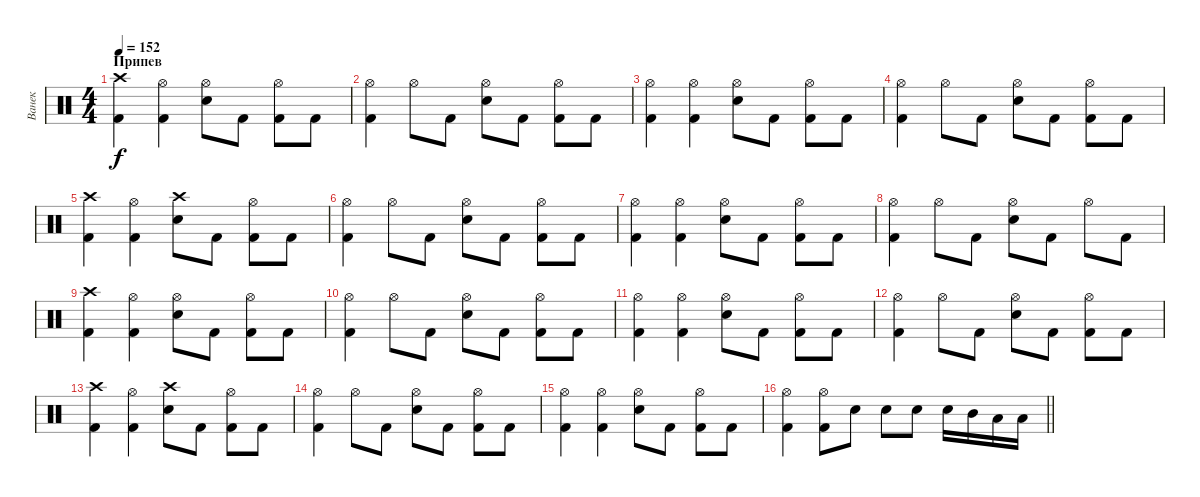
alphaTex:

\track ("Ванек" "Ванек") {instrument percussion}
\staff {score}
\articulation defaults
\ts (4 4)
\section ("" "Припев")
\tempo 152
\clef neutral
\ks c
("Crash high (hit)" "Kick (hit) 2").4{dy f} ("Hi-Hat (open)" "Kick (hit) 2").4 ("Hi-Hat (open)" "Electric Snare (hit)").8 "Kick (hit) 2".8 ("Hi-Hat (open)" "Kick (hit) 2").8 "Kick (hit) 2".8 |
("Hi-Hat (open)" "Kick (hit) 2").4 "Hi-Hat (open)".8 "Kick (hit) 2".8 ("Hi-Hat (open)" "Electric Snare (hit)").8 "Kick (hit) 2".8 ("Hi-Hat (open)" "Kick (hit) 2").8 "Kick (hit) 2".8 |
("Hi-Hat (open)" "Kick (hit) 2").4 ("Hi-Hat (open)" "Kick (hit) 2").4 ("Hi-Hat (open)" "Electric Snare (hit)").8 "Kick (hit) 2".8 ("Hi-Hat (open)" "Kick (hit) 2").8 "Kick (hit) 2".8 |
("Hi-Hat (open)" "Kick (hit) 2").4 "Hi-Hat (open)".8 "Kick (hit) 2".8 ("Hi-Hat (open)" "Electric Snare (hit)").8 "Kick (hit) 2".8 ("Hi-Hat (open)" "Kick (hit) 2").8 "Kick (hit) 2".8 |
("Crash high (hit)" "Kick (hit) 2").4 ("Hi-Hat (open)" "Kick (hit) 2").4 ("Crash high (hit)" "Electric Snare (hit)").8 "Kick (hit) 2".8 ("Hi-Hat (open)" "Kick (hit) 2").8 "Kick (hit) 2".8 |
("Hi-Hat (open)" "Kick (hit) 2").4 "Hi-Hat (open)".8 "Kick (hit) 2".8 ("Hi-Hat (open)" "Electric Snare (hit)").8 "Kick (hit) 2".8 ("Hi-Hat (open)" "Kick (hit) 2").8 "Kick (hit) 2".8 |
("Hi-Hat (open)" "Kick (hit) 2").4 ("Hi-Hat (open)" "Kick (hit) 2").4 ("Hi-Hat (open)" "Electric Snare (hit)").8 "Kick (hit) 2".8 ("Hi-Hat (open)" "Kick (hit) 2").8 "Kick (hit) 2".8 |
("Hi-Hat (open)" "Kick (hit) 2").4 "Hi-Hat (open)".8 "Kick (hit) 2".8 ("Hi-Hat (open)" "Electric Snare (hit)").8 "Kick (hit) 2".8 "Hi-Hat (open)".8 "Kick (hit) 2".8 |
("Crash high (hit)" "Kick (hit) 2").4 ("Hi-Hat (open)" "Kick (hit) 2").4 ("Hi-Hat (open)" "Electric Snare (hit)").8 "Kick (hit) 2".8 ("Hi-Hat (open)" "Kick (hit) 2").8 "Kick (hit) 2".8 |
("Hi-Hat (open)" "Kick (hit) 2").4 "Hi-Hat (open)".8 "Kick (hit) 2".8 ("Hi-Hat (open)" "Electric Snare (hit)").8 "Kick (hit) 2".8 ("Hi-Hat (open)" "Kick (hit) 2").8 "Kick (hit) 2".8 |
("Hi-Hat (open)" "Kick (hit) 2").4 ("Hi-Hat (open)" "Kick (hit) 2").4 ("Hi-Hat (open)" "Electric Snare (hit)").8 "Kick (hit) 2".8 ("Hi-Hat (open)" "Kick (hit) 2").8 "Kick (hit) 2".8 |
("Hi-Hat (open)" "Kick (hit) 2").4 "Hi-Hat (open)".8 "Kick (hit) 2".8 ("Hi-Hat (open)" "Electric Snare (hit)").8 "Kick (hit) 2".8 ("Hi-Hat (open)" "Kick (hit) 2").8 "Kick (hit) 2".8 |
("Crash high (hit)" "Kick (hit) 2").4 ("Hi-Hat (open)" "Kick (hit) 2").4 ("Crash high (hit)" "Electric Snare (hit)").8 "Kick (hit) 2".8 ("Hi-Hat (open)" "Kick (hit) 2").8 "Kick (hit) 2".8 |
("Hi-Hat (open)" "Kick (hit) 2").4 "Hi-Hat (open)".8 "Kick (hit) 2".8 ("Hi-Hat (open)" "Electric Snare (hit)").8 "Kick (hit) 2".8 ("Hi-Hat (open)" "Kick (hit) 2").8 "Kick (hit) 2".8 |
("Hi-Hat (open)" "Kick (hit) 2").4 ("Hi-Hat (open)" "Kick (hit) 2").4 ("Hi-Hat (open)" "Electric Snare (hit)").8 "Kick (hit) 2".8 ("Hi-Hat (open)" "Kick (hit) 2").8 "Kick (hit) 2".8 |
\barLineRight lightlight
("Hi-Hat (open)" "Kick (hit) 2").4 ("Hi-Hat (open)" "Kick (hit) 2").8 "Electric Snare (hit)".8 "Electric Snare (hit)".8 "Electric Snare (hit)".8 "Electric Snare (hit)".16 "Mid Tom (hit)".16 "Low Tom (hit)".16 "Low Floor Tom (hit)".16
